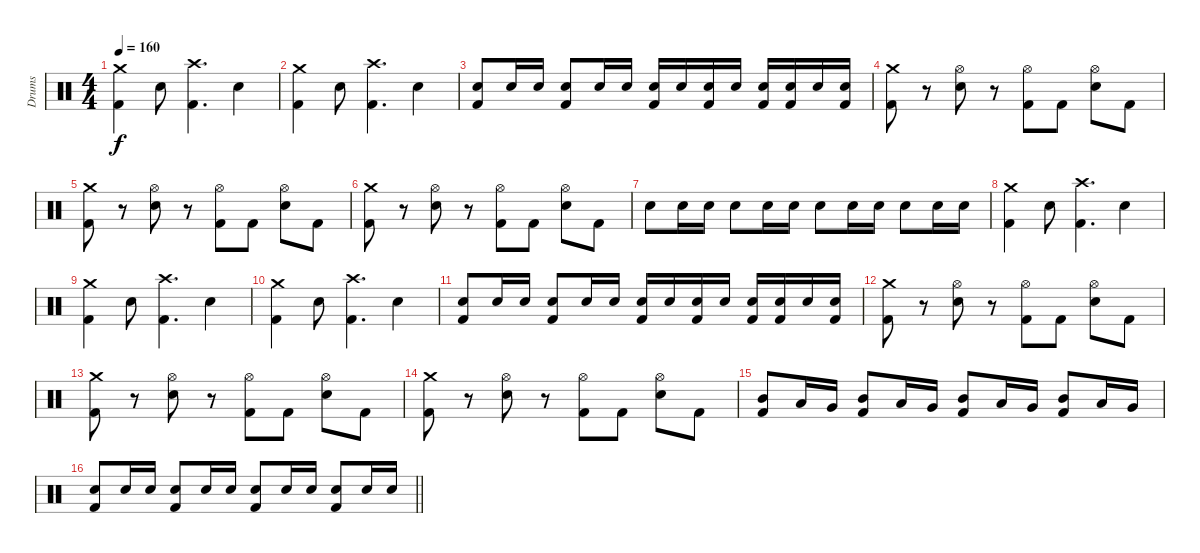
\track ("Drums" "Drums") {instrument percussion}
\staff {score}
\articulation defaults
\ts (4 4)
\tempo 160
\clef neutral
\ks c
("Crash medium (hit)" "Kick (hit) 2").4{dy f} "Snare (hit) 2".8 ("Crash high (hit)" "Kick (hit) 2").4{d} "Snare (hit) 2".4 |
("Crash medium (hit)" "Kick (hit) 2").4 "Snare (hit) 2".8 ("Crash high (hit)" "Kick (hit) 2").4{d} "Snare (hit) 2".4 |
("Snare (hit) 2" "Kick (hit) 2").8 "Snare (hit) 2".16 "Snare (hit) 2".16 ("Snare (hit) 2" "Kick (hit) 2").8 "Snare (hit) 2".16 "Snare (hit) 2".16 ("Snare (hit) 2" "Kick (hit) 2").16 "Snare (hit) 2".16 ("Snare (hit) 2" "Kick (hit) 2").16 "Snare (hit) 2".16 ("Snare (hit) 2" "Kick (hit) 2").16 ("Snare (hit) 2" "Kick (hit) 2").16 "Snare (hit) 2".16 ("Snare (hit) 2" "Kick (hit) 2").16 |
("Crash medium (hit)" "Kick (hit) 2").8 r.8 ("Hi-Hat (open)" "Snare (hit) 2").8 r.8 ("Hi-Hat (open)" "Kick (hit) 2").8 "Kick (hit) 2".8 ("Hi-Hat (open)" "Snare (hit) 2").8 "Kick (hit) 2".8 |
("Crash medium (hit)" "Kick (hit) 2").8 r.8 ("Hi-Hat (open)" "Snare (hit) 2").8 r.8 ("Hi-Hat (open)" "Kick (hit) 2").8 "Kick (hit) 2".8 ("Hi-Hat (open)" "Snare (hit) 2").8 "Kick (hit) 2".8 |
("Crash medium (hit)" "Kick (hit) 2").8 r.8 ("Hi-Hat (open)" "Snare (hit) 2").8 r.8 ("Hi-Hat (open)" "Kick (hit) 2").8 "Kick (hit) 2".8 ("Hi-Hat (open)" "Snare (hit) 2").8 "Kick (hit) 2".8 |
"Snare (hit) 2".8 "Snare (hit) 2".16 "Snare (hit) 2".16 "Snare (hit) 2".8 "Snare (hit) 2".16 "Snare (hit) 2".16 "Snare (hit) 2".8 "Snare (hit) 2".16 "Snare (hit) 2".16 "Snare (hit) 2".8 "Snare (hit) 2".16 "Snare (hit) 2".16 |
("Crash medium (hit)" "Kick (hit) 2").4 "Snare (hit) 2".8 ("Crash high (hit)" "Kick (hit) 2").4{d} "Snare (hit) 2".4 |
("Crash medium (hit)" "Kick (hit) 2").4 "Snare (hit) 2".8 ("Crash high (hit)" "Kick (hit) 2").4{d} "Snare (hit) 2".4 |
("Crash medium (hit)" "Kick (hit) 2").4 "Snare (hit) 2".8 ("Crash high (hit)" "Kick (hit) 2").4{d} "Snare (hit) 2".4 |
("Snare (hit) 2" "Kick (hit) 2").8 "Snare (hit) 2".16 "Snare (hit) 2".16 ("Snare (hit) 2" "Kick (hit) 2").8 "Snare (hit) 2".16 "Snare (hit) 2".16 ("Snare (hit) 2" "Kick (hit) 2").16 "Snare (hit) 2".16 ("Snare (hit) 2" "Kick (hit) 2").16 "Snare (hit) 2".16 ("Snare (hit) 2" "Kick (hit) 2").16 ("Snare (hit) 2" "Kick (hit) 2").16 "Snare (hit) 2".16 ("Snare (hit) 2" "Kick (hit) 2").16 |
("Crash medium (hit)" "Kick (hit) 2").8 r.8 ("Hi-Hat (open)" "Snare (hit) 2").8 r.8 ("Hi-Hat (open)" "Kick (hit) 2").8 "Kick (hit) 2".8 ("Hi-Hat (open)" "Snare (hit) 2").8 "Kick (hit) 2".8 |
("Crash medium (hit)" "Kick (hit) 2").8 r.8 ("Hi-Hat (open)" "Snare (hit) 2").8 r.8 ("Hi-Hat (open)" "Kick (hit) 2").8 "Kick (hit) 2".8 ("Hi-Hat (open)" "Snare (hit) 2").8 "Kick (hit) 2".8 |
("Crash medium (hit)" "Kick (hit) 2").8 r.8 ("Hi-Hat (open)" "Snare (hit) 2").8 r.8 ("Hi-Hat (open)" "Kick (hit) 2").8 "Kick (hit) 2".8 ("Hi-Hat (open)" "Snare (hit) 2").8 "Kick (hit) 2".8 |
("Mid Tom (hit)" "Kick (hit) 2").8 "Low Tom (hit)".16 "Very Low Tom (hit)".16 ("Mid Tom (hit)" "Kick (hit) 2").8 "Low Tom (hit)".16 "Very Low Tom (hit)".16 ("Mid Tom (hit)" "Kick (hit) 2").8 "Low Tom (hit)".16 "Very Low Tom (hit)".16 ("Mid Tom (hit)" "Kick (hit) 2").8 "Low Tom (hit)".16 "Very Low Tom (hit)".16 |
\barLineRight lightlight
("Snare (hit) 2" "Kick (hit) 2").8 "Snare (hit) 2".16 "Snare (hit) 2".16 ("Snare (hit) 2" "Kick (hit) 2").8 "Snare (hit) 2".16 "Snare (hit) 2".16 ("Snare (hit) 2" "Kick (hit) 2").8 "Snare (hit) 2".16 "Snare (hit) 2".16 ("Snare (hit) 2" "Kick (hit) 2").8 "Snare (hit) 2".16 "Snare (hit) 2".16
